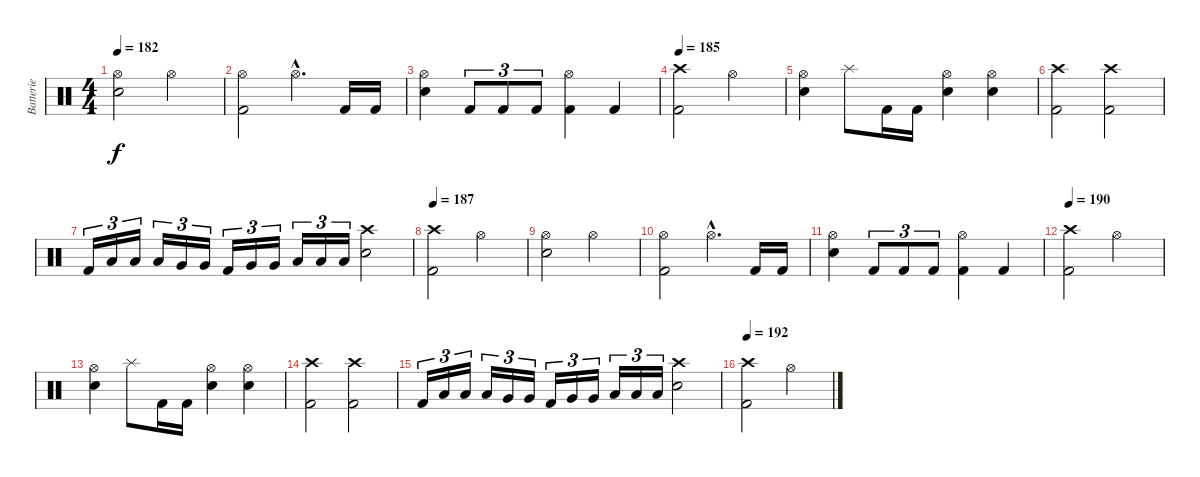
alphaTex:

\track ("Batterie" "Batterie") {instrument percussion}
\staff {score}
\articulation defaults
\ts (4 4)
\tempo 182
\clef neutral
\ks c
("Hi-Hat (open)" "Electric Snare (hit)").2{dy f} "Hi-Hat (open)".2 |
("Hi-Hat (open)" "Kick (hit) 2").2 "Hi-Hat (open)"{hac}.4{d} "Kick (hit) 2".16 "Kick (hit) 2".16 |
("Hi-Hat (open)" "Electric Snare (hit)").4 "Kick (hit) 2".8{tu (3 2)} "Kick (hit) 2".8{tu (3 2)} "Kick (hit) 2".8{tu (3 2)} ("Hi-Hat (open)" "Kick (hit) 2").4 "Kick (hit) 2".4 |
\tempo 185
("Crash high (hit)" "Kick (hit) 2").2 "Hi-Hat (open)".2 |
("Hi-Hat (open)" "Electric Snare (hit)").4 "Splash (hit)".8 "Kick (hit) 2".16 "Kick (hit) 2".16 ("Hi-Hat (open)" "Electric Snare (hit)").4 ("Hi-Hat (open)" "Electric Snare (hit)").4 |
("Crash high (hit)" "Kick (hit) 2").2 ("Crash high (hit)" "Kick (hit) 2").2 |
"Kick (hit) 2".16{tu (3 2)} "Low Tom (hit)".16{tu (3 2)} "Low Tom (hit)".16{tu (3 2)} "Low Tom (hit)".16{tu (3 2)} "Very Low Tom (hit)".16{tu (3 2)} "Very Low Tom (hit)".16{tu (3 2)} "Kick (hit) 2".16{tu (3 2)} "Very Low Tom (hit)".16{tu (3 2)} "Very Low Tom (hit)".16{tu (3 2)} "Low Floor Tom (hit)".16{tu (3 2)} "Low Floor Tom (hit)".16{tu (3 2)} "Low Floor Tom (hit)".16{tu (3 2)} ("Crash high (hit)" "Electric Snare (hit)").2 |
\tempo 187
("Crash high (hit)" "Kick (hit) 2").2 "Hi-Hat (open)".2 |
("Hi-Hat (open)" "Electric Snare (hit)").2 "Hi-Hat (open)".2 |
("Hi-Hat (open)" "Kick (hit) 2").2 "Hi-Hat (open)"{hac}.4{d} "Kick (hit) 2".16 "Kick (hit) 2".16 |
("Hi-Hat (open)" "Electric Snare (hit)").4 "Kick (hit) 2".8{tu (3 2)} "Kick (hit) 2".8{tu (3 2)} "Kick (hit) 2".8{tu (3 2)} ("Hi-Hat (open)" "Kick (hit) 2").4 "Kick (hit) 2".4 |
\tempo 190
("Crash high (hit)" "Kick (hit) 2").2 "Hi-Hat (open)".2 |
("Hi-Hat (open)" "Electric Snare (hit)").4 "Splash (hit)".8 "Kick (hit) 2".16 "Kick (hit) 2".16 ("Hi-Hat (open)" "Electric Snare (hit)").4 ("Hi-Hat (open)" "Electric Snare (hit)").4 |
("Crash high (hit)" "Kick (hit) 2").2 ("Crash high (hit)" "Kick (hit) 2").2 |
"Kick (hit) 2".16{tu (3 2)} "Low Tom (hit)".16{tu (3 2)} "Low Tom (hit)".16{tu (3 2)} "Low Tom (hit)".16{tu (3 2)} "Very Low Tom (hit)".16{tu (3 2)} "Very Low Tom (hit)".16{tu (3 2)} "Kick (hit) 2".16{tu (3 2)} "Very Low Tom (hit)".16{tu (3 2)} "Very Low Tom (hit)".16{tu (3 2)} "Low Floor Tom (hit)".16{tu (3 2)} "Low Floor Tom (hit)".16{tu (3 2)} "Low Floor Tom (hit)".16{tu (3 2)} ("Crash high (hit)" "Electric Snare (hit)").2 |
\tempo 192
("Crash high (hit)" "Kick (hit) 2").2 "Hi-Hat (open)".2
